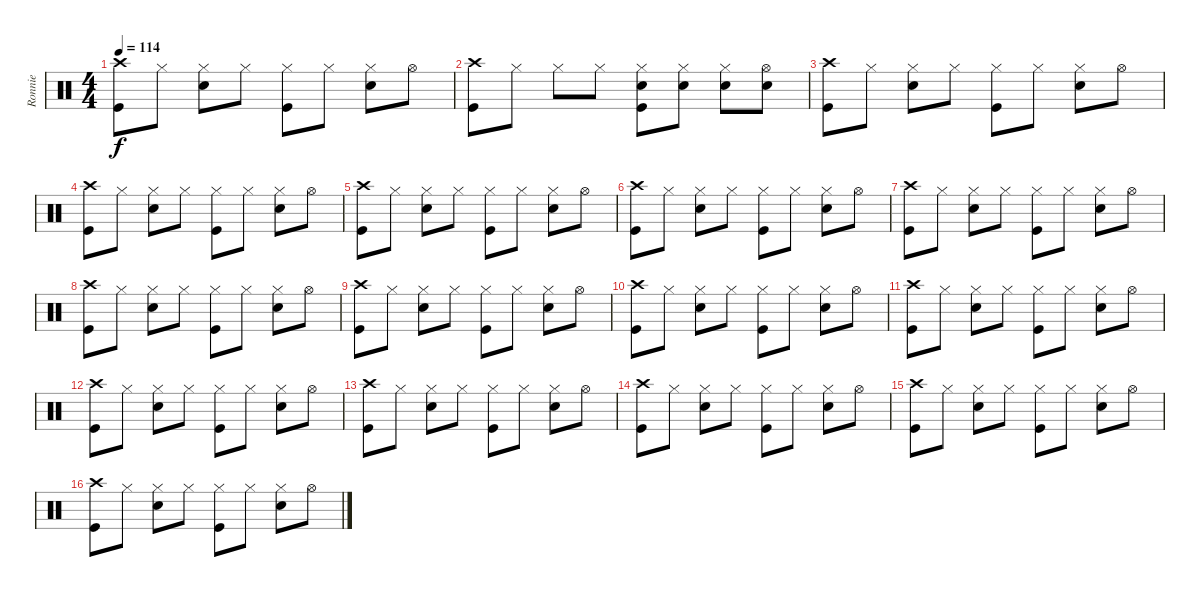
\track ("Ronnie" "Ronnie") {instrument percussion}
\staff {score}
\articulation defaults
\ts (4 4)
\tempo 114
\clef neutral
\ks c
("Crash high (hit)" "Kick (hit)").8{dy f} "Hi-Hat (closed)".8 ("Hi-Hat (closed)" "Electric Snare (hit)").8 "Hi-Hat (closed)".8 ("Hi-Hat (closed)" "Kick (hit)").8 "Hi-Hat (closed)".8 ("Hi-Hat (closed)" "Electric Snare (hit)").8 "Hi-Hat (open)".8 |
("Crash high (hit)" "Kick (hit)").8 "Hi-Hat (closed)".8 "Hi-Hat (closed)".8 "Hi-Hat (closed)".8 ("Hi-Hat (closed)" "Electric Snare (hit)" "Kick (hit)").8 ("Hi-Hat (closed)" "Electric Snare (hit)").8 ("Hi-Hat (closed)" "Electric Snare (hit)").8 ("Hi-Hat (open)" "Electric Snare (hit)").8 |
("Crash high (hit)" "Kick (hit)").8 "Hi-Hat (closed)".8 ("Hi-Hat (closed)" "Electric Snare (hit)").8 "Hi-Hat (closed)".8 ("Hi-Hat (closed)" "Kick (hit)").8 "Hi-Hat (closed)".8 ("Hi-Hat (closed)" "Electric Snare (hit)").8 "Hi-Hat (open)".8 |
("Crash high (hit)" "Kick (hit)").8 "Hi-Hat (closed)".8 ("Hi-Hat (closed)" "Electric Snare (hit)").8 "Hi-Hat (closed)".8 ("Hi-Hat (closed)" "Kick (hit)").8 "Hi-Hat (closed)".8 ("Hi-Hat (closed)" "Electric Snare (hit)").8 "Hi-Hat (open)".8 |
("Crash high (hit)" "Kick (hit)").8 "Hi-Hat (closed)".8 ("Hi-Hat (closed)" "Electric Snare (hit)").8 "Hi-Hat (closed)".8 ("Hi-Hat (closed)" "Kick (hit)").8 "Hi-Hat (closed)".8 ("Hi-Hat (closed)" "Electric Snare (hit)").8 "Hi-Hat (open)".8 |
("Crash high (hit)" "Kick (hit)").8 "Hi-Hat (closed)".8 ("Hi-Hat (closed)" "Electric Snare (hit)").8 "Hi-Hat (closed)".8 ("Hi-Hat (closed)" "Kick (hit)").8 "Hi-Hat (closed)".8 ("Hi-Hat (closed)" "Electric Snare (hit)").8 "Hi-Hat (open)".8 |
("Crash high (hit)" "Kick (hit)").8 "Hi-Hat (closed)".8 ("Hi-Hat (closed)" "Electric Snare (hit)").8 "Hi-Hat (closed)".8 ("Hi-Hat (closed)" "Kick (hit)").8 "Hi-Hat (closed)".8 ("Hi-Hat (closed)" "Electric Snare (hit)").8 "Hi-Hat (open)".8 |
("Crash high (hit)" "Kick (hit)").8 "Hi-Hat (closed)".8 ("Hi-Hat (closed)" "Electric Snare (hit)").8 "Hi-Hat (closed)".8 ("Hi-Hat (closed)" "Kick (hit)").8 "Hi-Hat (closed)".8 ("Hi-Hat (closed)" "Electric Snare (hit)").8 "Hi-Hat (open)".8 |
("Crash high (hit)" "Kick (hit)").8 "Hi-Hat (closed)".8 ("Hi-Hat (closed)" "Electric Snare (hit)").8 "Hi-Hat (closed)".8 ("Hi-Hat (closed)" "Kick (hit)").8 "Hi-Hat (closed)".8 ("Hi-Hat (closed)" "Electric Snare (hit)").8 "Hi-Hat (open)".8 |
("Crash high (hit)" "Kick (hit)").8 "Hi-Hat (closed)".8 ("Hi-Hat (closed)" "Electric Snare (hit)").8 "Hi-Hat (closed)".8 ("Hi-Hat (closed)" "Kick (hit)").8 "Hi-Hat (closed)".8 ("Hi-Hat (closed)" "Electric Snare (hit)").8 "Hi-Hat (open)".8 |
("Crash high (hit)" "Kick (hit)").8 "Hi-Hat (closed)".8 ("Hi-Hat (closed)" "Electric Snare (hit)").8 "Hi-Hat (closed)".8 ("Hi-Hat (closed)" "Kick (hit)").8 "Hi-Hat (closed)".8 ("Hi-Hat (closed)" "Electric Snare (hit)").8 "Hi-Hat (open)".8 |
("Crash high (hit)" "Kick (hit)").8 "Hi-Hat (closed)".8 ("Hi-Hat (closed)" "Electric Snare (hit)").8 "Hi-Hat (closed)".8 ("Hi-Hat (closed)" "Kick (hit)").8 "Hi-Hat (closed)".8 ("Hi-Hat (closed)" "Electric Snare (hit)").8 "Hi-Hat (open)".8 |
("Crash high (hit)" "Kick (hit)").8 "Hi-Hat (closed)".8 ("Hi-Hat (closed)" "Electric Snare (hit)").8 "Hi-Hat (closed)".8 ("Hi-Hat (closed)" "Kick (hit)").8 "Hi-Hat (closed)".8 ("Hi-Hat (closed)" "Electric Snare (hit)").8 "Hi-Hat (open)".8 |
("Crash high (hit)" "Kick (hit)").8 "Hi-Hat (closed)".8 ("Hi-Hat (closed)" "Electric Snare (hit)").8 "Hi-Hat (closed)".8 ("Hi-Hat (closed)" "Kick (hit)").8 "Hi-Hat (closed)".8 ("Hi-Hat (closed)" "Electric Snare (hit)").8 "Hi-Hat (open)".8 |
("Crash high (hit)" "Kick (hit)").8 "Hi-Hat (closed)".8 ("Hi-Hat (closed)" "Electric Snare (hit)").8 "Hi-Hat (closed)".8 ("Hi-Hat (closed)" "Kick (hit)").8 "Hi-Hat (closed)".8 ("Hi-Hat (closed)" "Electric Snare (hit)").8 "Hi-Hat (open)".8 |
("Crash high (hit)" "Kick (hit)").8 "Hi-Hat (closed)".8 ("Hi-Hat (closed)" "Electric Snare (hit)").8 "Hi-Hat (closed)".8 ("Hi-Hat (closed)" "Kick (hit)").8 "Hi-Hat (closed)".8 ("Hi-Hat (closed)" "Electric Snare (hit)").8 "Hi-Hat (open)".8
